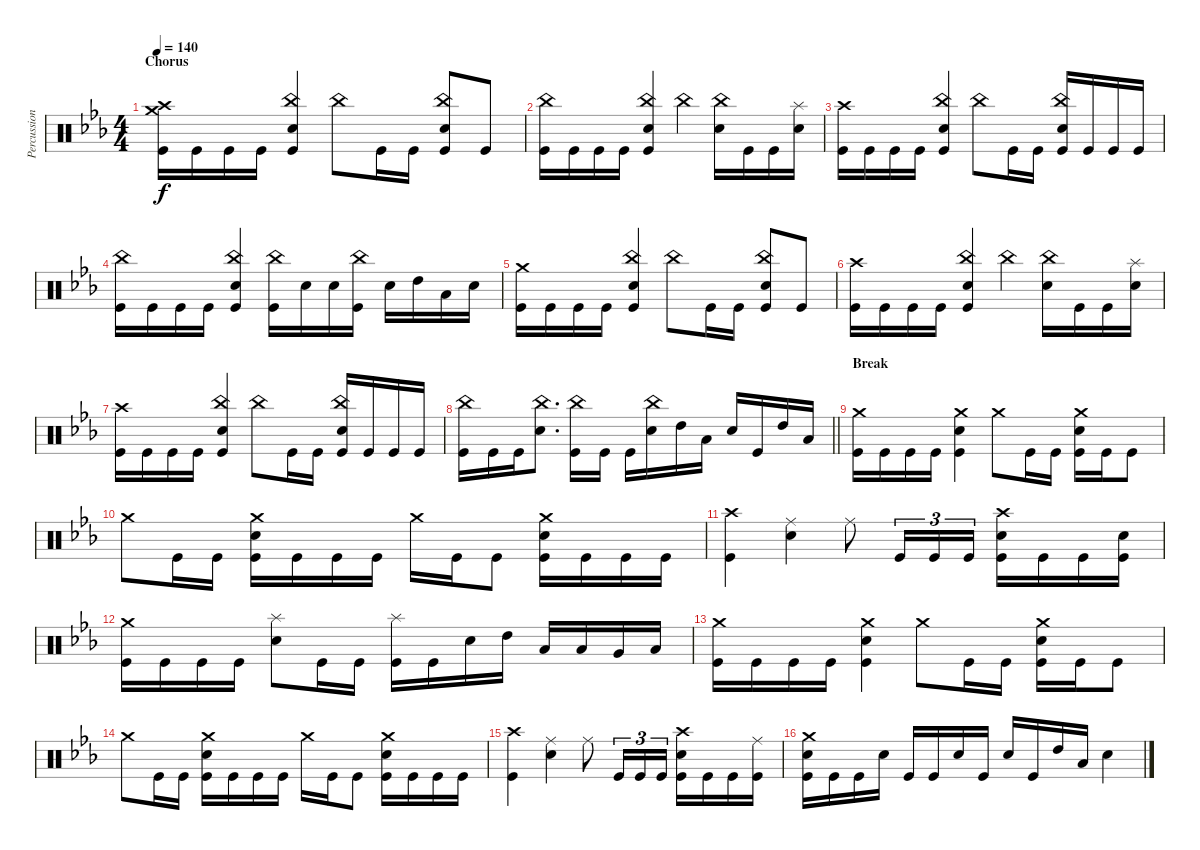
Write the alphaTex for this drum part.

\track ("Percussion" "Percussion") {instrument percussion}
\staff {score}
\articulation defaults
\ts (4 4)
\section ("" "Chorus")
\tempo 140
\clef neutral
\ks eb
("Crash high (hit)" "Crash medium (hit)" "Kick (hit)").16{dy f} "Kick (hit)".16 "Kick (hit)".16 "Kick (hit)".16 ("China (hit)" "Electric Snare (hit)" "Kick (hit)").4 "China (hit)".8 "Kick (hit)".16 "Kick (hit)".16 ("China (hit)" "Electric Snare (hit)" "Kick (hit)").8 "Kick (hit)".8 |
("China (hit)" "Kick (hit)").16 "Kick (hit)".16 "Kick (hit)".16 "Kick (hit)".16 ("China (hit)" "Electric Snare (hit)" "Kick (hit)").4 "China (hit)".4 ("China (hit)" "Electric Snare (hit)").16 "Kick (hit)".16 "Kick (hit)".16 ("Splash (hit)" "Electric Snare (hit)").16 |
("Crash high (hit)" "Kick (hit)").16 "Kick (hit)".16 "Kick (hit)".16 "Kick (hit)".16 ("China (hit)" "Electric Snare (hit)" "Kick (hit)").4 "China (hit)".8 "Kick (hit)".16 "Kick (hit)".16 ("China (hit)" "Electric Snare (hit)" "Kick (hit)").16 "Kick (hit)".16 "Kick (hit)".16 "Kick (hit)".16 |
("China (hit)" "Kick (hit)").16 "Kick (hit)".16 "Kick (hit)".16 "Kick (hit)".16 ("China (hit)" "Electric Snare (hit)" "Kick (hit)").4 ("China (hit)" "Kick (hit)").16 "Electric Snare (hit)".16 "Electric Snare (hit)".16 ("China (hit)" "Kick (hit)").16 "Electric Snare (hit)".16 "High Tom (hit)".16 "Low Tom (hit)".16 "Electric Snare (hit)".16 |
("Crash medium (hit)" "Kick (hit)").16 "Kick (hit)".16 "Kick (hit)".16 "Kick (hit)".16 ("China (hit)" "Electric Snare (hit)" "Kick (hit)").4 "China (hit)".8 "Kick (hit)".16 "Kick (hit)".16 ("China (hit)" "Electric Snare (hit)" "Kick (hit)").8 "Kick (hit)".8 |
("Crash high (hit)" "Kick (hit)").16 "Kick (hit)".16 "Kick (hit)".16 "Kick (hit)".16 ("China (hit)" "Electric Snare (hit)" "Kick (hit)").4 "China (hit)".4 ("China (hit)" "Electric Snare (hit)").16 "Kick (hit)".16 "Kick (hit)".16 ("Splash (hit)" "Electric Snare (hit)").16 |
("Crash high (hit)" "Kick (hit)").16 "Kick (hit)".16 "Kick (hit)".16 "Kick (hit)".16 ("China (hit)" "Electric Snare (hit)" "Kick (hit)").4 "China (hit)".8 "Kick (hit)".16 "Kick (hit)".16 ("China (hit)" "Electric Snare (hit)" "Kick (hit)").16 "Kick (hit)".16 "Kick (hit)".16 "Kick (hit)".16 |
\barLineRight lightlight
("China (hit)" "Kick (hit)").16 "Kick (hit)".16 "Kick (hit)".16 ("China (hit)" "Electric Snare (hit)").8{d} ("China (hit)" "Kick (hit)").16 "Kick (hit)".16 "Kick (hit)".16 ("China (hit)" "Electric Snare (hit)").16 "High Tom (hit)".16 "Low Tom (hit)".16 "Electric Snare (hit)".16 "Kick (hit)".16 "High Tom (hit)".16 "Low Tom (hit)".16 |
\section ("" "Break")
("Crash medium (hit)" "Kick (hit)").16 "Kick (hit)".16 "Kick (hit)".16 "Kick (hit)".16 ("Crash medium (hit)" "Electric Snare (hit)" "Kick (hit)").4 "Crash medium (hit)".8 "Kick (hit)".16 "Kick (hit)".16 ("Crash medium (hit)" "Electric Snare (hit)" "Kick (hit)").16 "Kick (hit)".16 "Kick (hit)".8 |
"Crash medium (hit)".8 "Kick (hit)".16 "Kick (hit)".16 ("Crash medium (hit)" "Electric Snare (hit)" "Kick (hit)").16 "Kick (hit)".16 "Kick (hit)".16 "Kick (hit)".16 "Crash medium (hit)".16 "Kick (hit)".16 "Kick (hit)".8 ("Crash medium (hit)" "Electric Snare (hit)" "Kick (hit)").16 "Kick (hit)".16 "Kick (hit)".16 "Kick (hit)".16 |
("Crash high (hit)" "Kick (hit)").4 ("Ride (middle)" "Electric Snare (hit)").4 "Ride (middle)".8 "Kick (hit)".16{tu (3 2)} "Kick (hit)".16{tu (3 2)} "Kick (hit)".16{tu (3 2)} ("Crash high (hit)" "Electric Snare (hit)" "Kick (hit)").16 "Kick (hit)".16 "Kick (hit)".16 ("Electric Snare (hit)" "Kick (hit)").16 |
("Crash medium (hit)" "Kick (hit)").16 "Kick (hit)".16 "Kick (hit)".16 "Kick (hit)".16 ("Splash (hit)" "Electric Snare (hit)").8 "Kick (hit)".16 "Kick (hit)".16 ("Splash (hit)" "Kick (hit)").16 "Kick (hit)".16 "Electric Snare (hit)".16 "High Tom (hit)".16 "Low Tom (hit)".16 "Low Floor Tom (hit)".16 "Very Low Tom (hit)".16 "Low Floor Tom (hit)".16 |
("Crash medium (hit)" "Kick (hit)").16 "Kick (hit)".16 "Kick (hit)".16 "Kick (hit)".16 ("Crash medium (hit)" "Electric Snare (hit)" "Kick (hit)").4 "Crash medium (hit)".8 "Kick (hit)".16 "Kick (hit)".16 ("Crash medium (hit)" "Electric Snare (hit)" "Kick (hit)").16 "Kick (hit)".16 "Kick (hit)".8 |
"Crash medium (hit)".8 "Kick (hit)".16 "Kick (hit)".16 ("Crash medium (hit)" "Electric Snare (hit)" "Kick (hit)").16 "Kick (hit)".16 "Kick (hit)".16 "Kick (hit)".16 "Crash medium (hit)".16 "Kick (hit)".16 "Kick (hit)".8 ("Crash medium (hit)" "Electric Snare (hit)" "Kick (hit)").16 "Kick (hit)".16 "Kick (hit)".16 "Kick (hit)".16 |
("Crash high (hit)" "Kick (hit)").4 ("Ride (middle)" "Electric Snare (hit)").4 "Ride (middle)".8 "Kick (hit)".16{tu (3 2)} "Kick (hit)".16{tu (3 2)} "Kick (hit)".16{tu (3 2)} ("Crash high (hit)" "Electric Snare (hit)" "Kick (hit)").16 "Kick (hit)".16 "Kick (hit)".16 ("Ride (middle)" "Kick (hit)").16 |
("Crash medium (hit)" "Electric Snare (hit)" "Kick (hit)").16 "Kick (hit)".16 "Kick (hit)".16 "Electric Snare (hit)".16 "Kick (hit)".16 "Kick (hit)".16 "Electric Snare (hit)".16 "Kick (hit)".16 "Electric Snare (hit)".16 "Kick (hit)".16 "High Tom (hit)".16 "Low Tom (hit)".16 "Electric Snare (hit)".4
